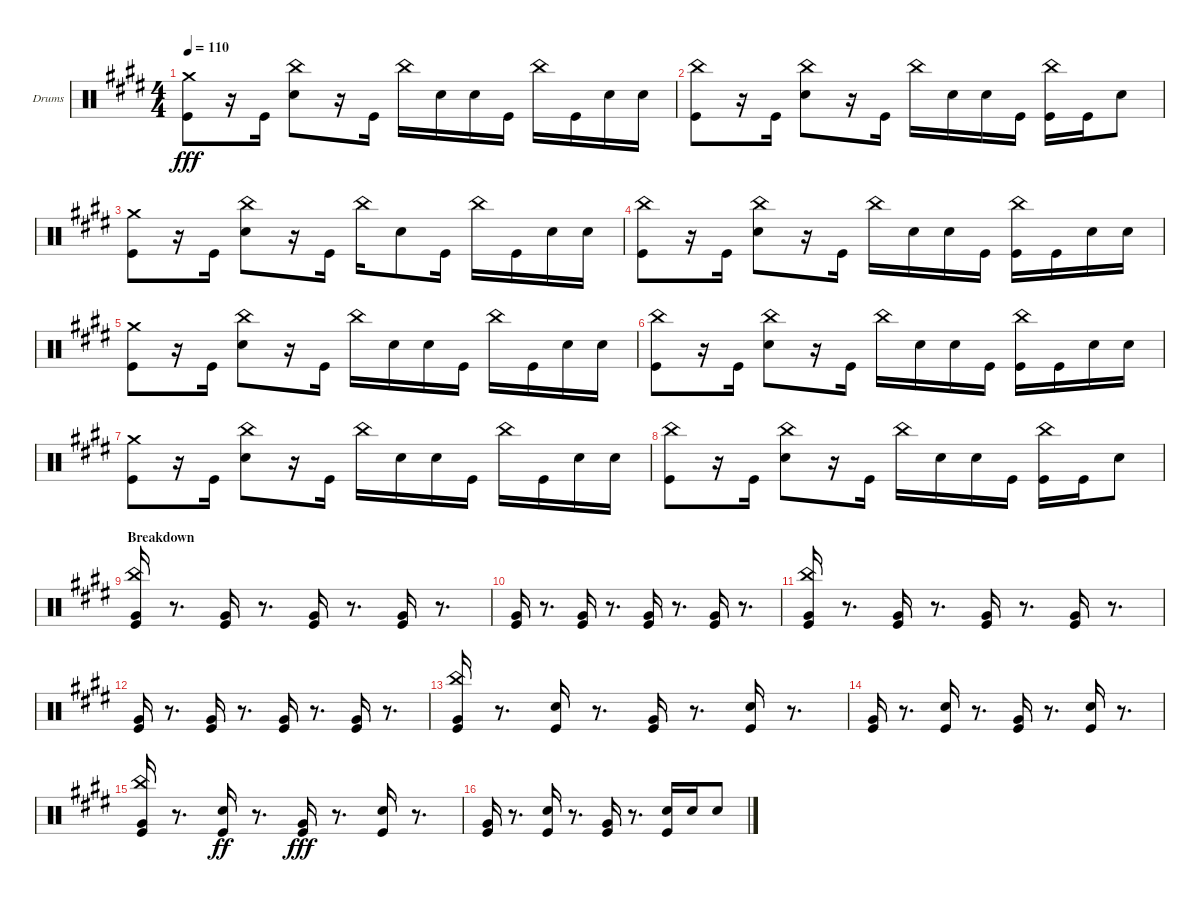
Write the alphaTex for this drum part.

\bracketExtendMode groupsimilarinstruments
\firstSystemTrackNameOrientation horizontal
\otherSystemsTrackNameOrientation horizontal
\track ("Drumkit" "Drums") {instrument percussion}
\staff {score}
\articulation defaults
\ts (4 4)
\tempo 110
\clef neutral
\scale
0.333333
\ks c#minor
("Crash medium (hit)" "Kick (hit)").8{dy fff} r.16 "Kick (hit)".16 ("Snare (hit) 2" "China (hit)").8 r.16 "Kick (hit)".16 "China (hit)".16 "Snare (hit) 2".16 "Snare (hit) 2".16 "Kick (hit)".16 "China (hit)".16 "Kick (hit)".16 "Snare (hit) 2".16 "Snare (hit) 2".16 |
\scale
0.333333 ("Kick (hit)" "China (hit)").8 r.16 "Kick (hit)".16 ("Snare (hit) 2" "China (hit)").8 r.16 "Kick (hit)".16 "China (hit)".16 "Snare (hit) 2".16 "Snare (hit) 2".16 "Kick (hit)".16 ("China (hit)" "Kick (hit)").16 "Kick (hit)".16 "Snare (hit) 2".8 |
\scale
0.333333 ("Crash medium (hit)" "Kick (hit)").8 r.16 "Kick (hit)".16 ("Snare (hit) 2" "China (hit)").8 r.16 "Kick (hit)".16 "China (hit)".16 "Snare (hit) 2".8 "Kick (hit)".16 "China (hit)".16 "Kick (hit)".16 "Snare (hit) 2".16 "Snare (hit) 2".16 |
\scale
0.333333 ("China (hit)" "Kick (hit)").8 r.16 "Kick (hit)".16 ("Snare (hit) 2" "China (hit)").8 r.16 "Kick (hit)".16 "China (hit)".16 "Snare (hit) 2".16 "Snare (hit) 2".16 "Kick (hit)".16 ("Kick (hit)" "China (hit)").16 "Kick (hit)".16 "Snare (hit) 2".16 "Snare (hit) 2".16 |
\scale
0.333333 ("Crash medium (hit)" "Kick (hit)").8 r.16 "Kick (hit)".16 ("Snare (hit) 2" "China (hit)").8 r.16 "Kick (hit)".16 "China (hit)".16 "Snare (hit) 2".16 "Snare (hit) 2".16 "Kick (hit)".16 "China (hit)".16 "Kick (hit)".16 "Snare (hit) 2".16 "Snare (hit) 2".16 |
\scale
0.333333 ("Kick (hit)" "China (hit)").8 r.16 "Kick (hit)".16 ("Snare (hit) 2" "China (hit)").8 r.16 "Kick (hit)".16 "China (hit)".16 "Snare (hit) 2".16 "Snare (hit) 2".16 "Kick (hit)".16 ("China (hit)" "Kick (hit)").16 "Kick (hit)".16 "Snare (hit) 2".16 "Snare (hit) 2".16 |
\scale
0.333333 ("Crash medium (hit)" "Kick (hit)").8 r.16 "Kick (hit)".16 ("Snare (hit) 2" "China (hit)").8 r.16 "Kick (hit)".16 "China (hit)".16 "Snare (hit) 2".16 "Snare (hit) 2".16 "Kick (hit)".16 "China (hit)".16 "Kick (hit)".16 "Snare (hit) 2".16 "Snare (hit) 2".16 |
\scale
0.333333 ("China (hit)" "Kick (hit)").8 r.16 "Kick (hit)".16 ("Snare (hit) 2" "China (hit)").8 r.16 "Kick (hit)".16 "China (hit)".16 "Snare (hit) 2".16 "Snare (hit) 2".16 "Kick (hit)".16 ("Kick (hit)" "China (hit)").16 "Kick (hit)".16 "Snare (hit) 2".8 |
\section ("" "Breakdown")
\scale
0.333333 ("Kick (hit)" "Very Low Tom (hit)" "China (hit)").16 r.8{d} ("Kick (hit)" "Very Low Tom (hit)").16 r.8{d} ("Kick (hit)" "Very Low Tom (hit)").16 r.8{d} ("Kick (hit)" "Very Low Tom (hit)").16 r.8{d} |
\scale
0.333333 ("Kick (hit)" "Very Low Tom (hit)").16 r.8{d} ("Kick (hit)" "Very Low Tom (hit)").16 r.8{d} ("Kick (hit)" "Very Low Tom (hit)").16 r.8{d} ("Very Low Tom (hit)" "Kick (hit)").16 r.8{d} |
\scale
0.333333 ("China (hit)" "Very Low Tom (hit)" "Kick (hit)").16 r.8{d} ("Kick (hit)" "Very Low Tom (hit)").16 r.8{d} ("Kick (hit)" "Very Low Tom (hit)").16 r.8{d} ("Kick (hit)" "Very Low Tom (hit)").16 r.8{d} |
\scale
0.333333 ("Kick (hit)" "Very Low Tom (hit)").16 r.8{d} ("Kick (hit)" "Very Low Tom (hit)").16 r.8{d} ("Kick (hit)" "Very Low Tom (hit)").16 r.8{d} ("Very Low Tom (hit)" "Kick (hit)").16 r.8{d} |
\scale
0.333333 ("China (hit)" "Very Low Tom (hit)" "Kick (hit)").16 r.8{d} ("Kick (hit)" "Snare (hit) 2").16 r.8{d} ("Kick (hit)" "Very Low Tom (hit)").16 r.8{d} ("Kick (hit)" "Snare (hit) 2").16 r.8{d} |
\scale
0.333333 ("Kick (hit)" "Very Low Tom (hit)").16 r.8{d} ("Kick (hit)" "Snare (hit) 2").16 r.8{d} ("Kick (hit)" "Very Low Tom (hit)").16 r.8{d} ("Snare (hit) 2" "Kick (hit)").16 r.8{d} |
\scale
0.333333 ("Kick (hit)" "Very Low Tom (hit)" "China (hit)").16 r.8{d} ("Snare (hit) 2" "Kick (hit)").16{dy ff} r.8{d} ("Kick (hit)" "Very Low Tom (hit)").16{dy fff} r.8{d} ("Snare (hit) 2" "Kick (hit)").16 r.8{d} |
\scale
0.333333 ("Kick (hit)" "Very Low Tom (hit)").16 r.8{d} ("Kick (hit)" "Snare (hit) 2").16 r.8{d} ("Kick (hit)" "Very Low Tom (hit)").16 r.8{d} ("Kick (hit)" "Snare (hit) 2").16 "Snare (hit) 2".16 "Snare (hit) 2".8
